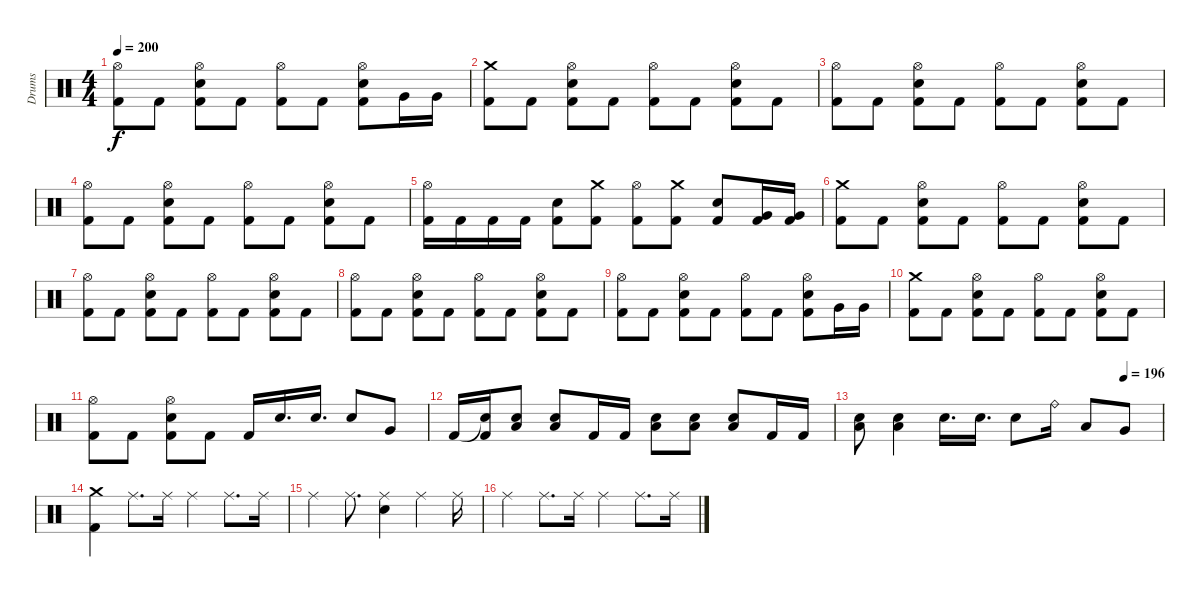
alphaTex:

\track ("Drums" "Drums") {instrument percussion}
\staff {score}
\articulation defaults
\ts (4 4)
\tempo 200
\clef neutral
\ks c
("Hi-Hat (open)" "Kick (hit) 2").8{dy f} "Kick (hit) 2".8 ("Hi-Hat (open)" "Electric Snare (hit)" "Kick (hit) 2").8 "Kick (hit) 2".8 ("Hi-Hat (open)" "Kick (hit) 2").8 "Kick (hit) 2".8 ("Hi-Hat (open)" "Electric Snare (hit)" "Kick (hit) 2").8 "Very Low Tom (hit)".16 "Very Low Tom (hit)".16 |
("Crash medium (hit)" "Kick (hit) 2").8 "Kick (hit) 2".8 ("Hi-Hat (open)" "Electric Snare (hit)" "Kick (hit) 2").8 "Kick (hit) 2".8 ("Hi-Hat (open)" "Kick (hit) 2").8 "Kick (hit) 2".8 ("Hi-Hat (open)" "Electric Snare (hit)" "Kick (hit) 2").8 "Kick (hit) 2".8 |
("Hi-Hat (open)" "Kick (hit) 2").8 "Kick (hit) 2".8 ("Hi-Hat (open)" "Electric Snare (hit)" "Kick (hit) 2").8 "Kick (hit) 2".8 ("Hi-Hat (open)" "Kick (hit) 2").8 "Kick (hit) 2".8 ("Hi-Hat (open)" "Electric Snare (hit)" "Kick (hit) 2").8 "Kick (hit) 2".8 |
("Hi-Hat (open)" "Kick (hit) 2").8 "Kick (hit) 2".8 ("Hi-Hat (open)" "Electric Snare (hit)" "Kick (hit) 2").8 "Kick (hit) 2".8 ("Hi-Hat (open)" "Kick (hit) 2").8 "Kick (hit) 2".8 ("Hi-Hat (open)" "Electric Snare (hit)" "Kick (hit) 2").8 "Kick (hit) 2".8 |
("Hi-Hat (open)" "Kick (hit) 2").16 "Kick (hit) 2".16 "Kick (hit) 2".16 "Kick (hit) 2".16 ("Electric Snare (hit)" "Kick (hit) 2").8 ("Crash medium (hit)" "Kick (hit) 2").8 ("Hi-Hat (open)" "Kick (hit) 2").8 ("Crash medium (hit)" "Kick (hit) 2").8 ("Electric Snare (hit)" "Kick (hit) 2").8 ("Very Low Tom (hit)" "Kick (hit) 2").16 ("Very Low Tom (hit)" "Kick (hit) 2").16 |
("Crash medium (hit)" "Kick (hit) 2").8 "Kick (hit) 2".8 ("Hi-Hat (open)" "Electric Snare (hit)" "Kick (hit) 2").8 "Kick (hit) 2".8 ("Hi-Hat (open)" "Kick (hit) 2").8 "Kick (hit) 2".8 ("Hi-Hat (open)" "Electric Snare (hit)" "Kick (hit) 2").8 "Kick (hit) 2".8 |
("Hi-Hat (open)" "Kick (hit) 2").8 "Kick (hit) 2".8 ("Hi-Hat (open)" "Electric Snare (hit)" "Kick (hit) 2").8 "Kick (hit) 2".8 ("Hi-Hat (open)" "Kick (hit) 2").8 "Kick (hit) 2".8 ("Hi-Hat (open)" "Electric Snare (hit)" "Kick (hit) 2").8 "Kick (hit) 2".8 |
("Hi-Hat (open)" "Kick (hit) 2").8 "Kick (hit) 2".8 ("Hi-Hat (open)" "Electric Snare (hit)" "Kick (hit) 2").8 "Kick (hit) 2".8 ("Hi-Hat (open)" "Kick (hit) 2").8 "Kick (hit) 2".8 ("Hi-Hat (open)" "Electric Snare (hit)" "Kick (hit) 2").8 "Kick (hit) 2".8 |
("Hi-Hat (open)" "Kick (hit) 2").8 "Kick (hit) 2".8 ("Hi-Hat (open)" "Electric Snare (hit)" "Kick (hit) 2").8 "Kick (hit) 2".8 ("Hi-Hat (open)" "Kick (hit) 2").8 "Kick (hit) 2".8 ("Hi-Hat (open)" "Electric Snare (hit)" "Kick (hit) 2").8 "Very Low Tom (hit)".16 "Very Low Tom (hit)".16 |
("Crash medium (hit)" "Kick (hit) 2").8 "Kick (hit) 2".8 ("Hi-Hat (open)" "Electric Snare (hit)" "Kick (hit) 2").8 "Kick (hit) 2".8 ("Hi-Hat (open)" "Kick (hit) 2").8 "Kick (hit) 2".8 ("Hi-Hat (open)" "Electric Snare (hit)" "Kick (hit) 2").8 "Kick (hit) 2".8 |
("Hi-Hat (open)" "Kick (hit) 2").8 "Kick (hit) 2".8 ("Hi-Hat (open)" "Electric Snare (hit)" "Kick (hit) 2").8 "Kick (hit) 2".8 "Kick (hit) 2".16 "Electric Snare (hit)".16{d} "Electric Snare (hit)".16{d} "Electric Snare (hit)".8 "Very Low Tom (hit)".8 |
"Kick (hit) 2".16 ("Snare (hit)"{t} "Kick (hit) 2").16 ("Electric Snare (hit)" "Low Floor Tom (hit)").8 ("Electric Snare (hit)" "Low Floor Tom (hit)").8 "Kick (hit) 2".16 "Kick (hit) 2".16 ("Electric Snare (hit)" "Low Floor Tom (hit)").8 ("Electric Snare (hit)" "Low Floor Tom (hit)").8 ("Electric Snare (hit)" "Low Floor Tom (hit)").8 "Kick (hit) 2".16 "Kick (hit) 2".16 |
\tempo (196 0.875)
("Electric Snare (hit)" "Low Floor Tom (hit)").8 ("Electric Snare (hit)" "Low Floor Tom (hit)").4 "Electric Snare (hit)".16{d} "Electric Snare (hit)".16{d} "Electric Snare (hit)".8 "Ride (bell)".16 "Low Tom (hit)".8 "Very Low Tom (hit)".8 |
("Crash medium (hit)" "Kick (hit) 2").4 "Ride (middle)".8{d} "Ride (middle)".16 "Ride (middle)".4 "Ride (middle)".8{d} "Ride (middle)".16 |
"Ride (middle)".4 "Ride (middle)".8{d} ("Ride (middle)" "Electric Snare (hit)").4 "Ride (middle)".4 "Ride (middle)".16 |
"Ride (middle)".4 "Ride (middle)".8{d} "Ride (middle)".16 "Ride (middle)".4 "Ride (middle)".8{d} "Ride (middle)".16
